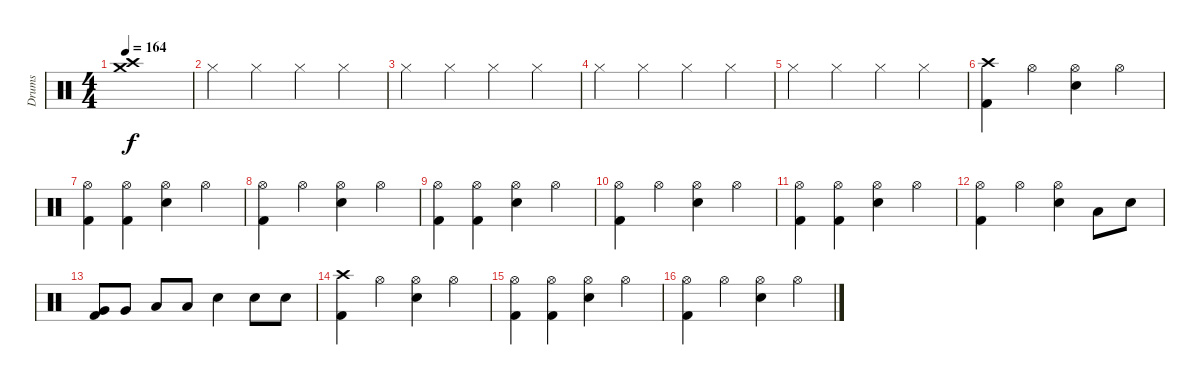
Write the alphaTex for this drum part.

\track ("Drums" "Drums") {instrument percussion}
\staff {score}
\articulation defaults
\ts (4 4)
\tempo 164
\clef neutral
\ks c
("Crash high (hit)" "Crash medium (hit)").1{dy f} |
"Hi-Hat (closed)".4 "Hi-Hat (closed)".4 "Hi-Hat (closed)".4 "Hi-Hat (closed)".4 |
"Hi-Hat (closed)".4 "Hi-Hat (closed)".4 "Hi-Hat (closed)".4 "Hi-Hat (closed)".4 |
"Hi-Hat (closed)".4 "Hi-Hat (closed)".4 "Hi-Hat (closed)".4 "Hi-Hat (closed)".4 |
"Hi-Hat (closed)".4 "Hi-Hat (closed)".4 "Hi-Hat (closed)".4 "Hi-Hat (closed)".4 |
("Crash high (hit)" "Kick (hit) 2").4 "Hi-Hat (open)".4 ("Hi-Hat (open)" "Snare (hit) 2").4 "Hi-Hat (open)".4 |
("Hi-Hat (open)" "Kick (hit) 2").4 ("Hi-Hat (open)" "Kick (hit) 2").4 ("Hi-Hat (open)" "Snare (hit) 2").4 "Hi-Hat (open)".4 |
("Hi-Hat (open)" "Kick (hit) 2").4 "Hi-Hat (open)".4 ("Hi-Hat (open)" "Snare (hit) 2").4 "Hi-Hat (open)".4 |
("Hi-Hat (open)" "Kick (hit) 2").4 ("Hi-Hat (open)" "Kick (hit) 2").4 ("Hi-Hat (open)" "Snare (hit) 2").4 "Hi-Hat (open)".4 |
("Hi-Hat (open)" "Kick (hit) 2").4 "Hi-Hat (open)".4 ("Hi-Hat (open)" "Snare (hit) 2").4 "Hi-Hat (open)".4 |
("Hi-Hat (open)" "Kick (hit) 2").4 ("Hi-Hat (open)" "Kick (hit) 2").4 ("Hi-Hat (open)" "Snare (hit) 2").4 "Hi-Hat (open)".4 |
("Hi-Hat (open)" "Kick (hit) 2").4 "Hi-Hat (open)".4 ("Hi-Hat (open)" "Snare (hit) 2").4 "Low Tom (hit)".8 "Snare (hit) 2".8 |
("Kick (hit) 2" "Very Low Tom (hit)").8 "Very Low Tom (hit)".8 "Low Floor Tom (hit)".8 "Low Floor Tom (hit)".8 "Snare (hit) 2".4 "Snare (hit) 2".8 "Snare (hit) 2".8 |
("Crash high (hit)" "Kick (hit) 2").4 "Hi-Hat (open)".4 ("Hi-Hat (open)" "Snare (hit) 2").4 "Hi-Hat (open)".4 |
("Hi-Hat (open)" "Kick (hit) 2").4 ("Hi-Hat (open)" "Kick (hit) 2").4 ("Hi-Hat (open)" "Snare (hit) 2").4 "Hi-Hat (open)".4 |
("Hi-Hat (open)" "Kick (hit) 2").4 "Hi-Hat (open)".4 ("Hi-Hat (open)" "Snare (hit) 2").4 "Hi-Hat (open)".4
